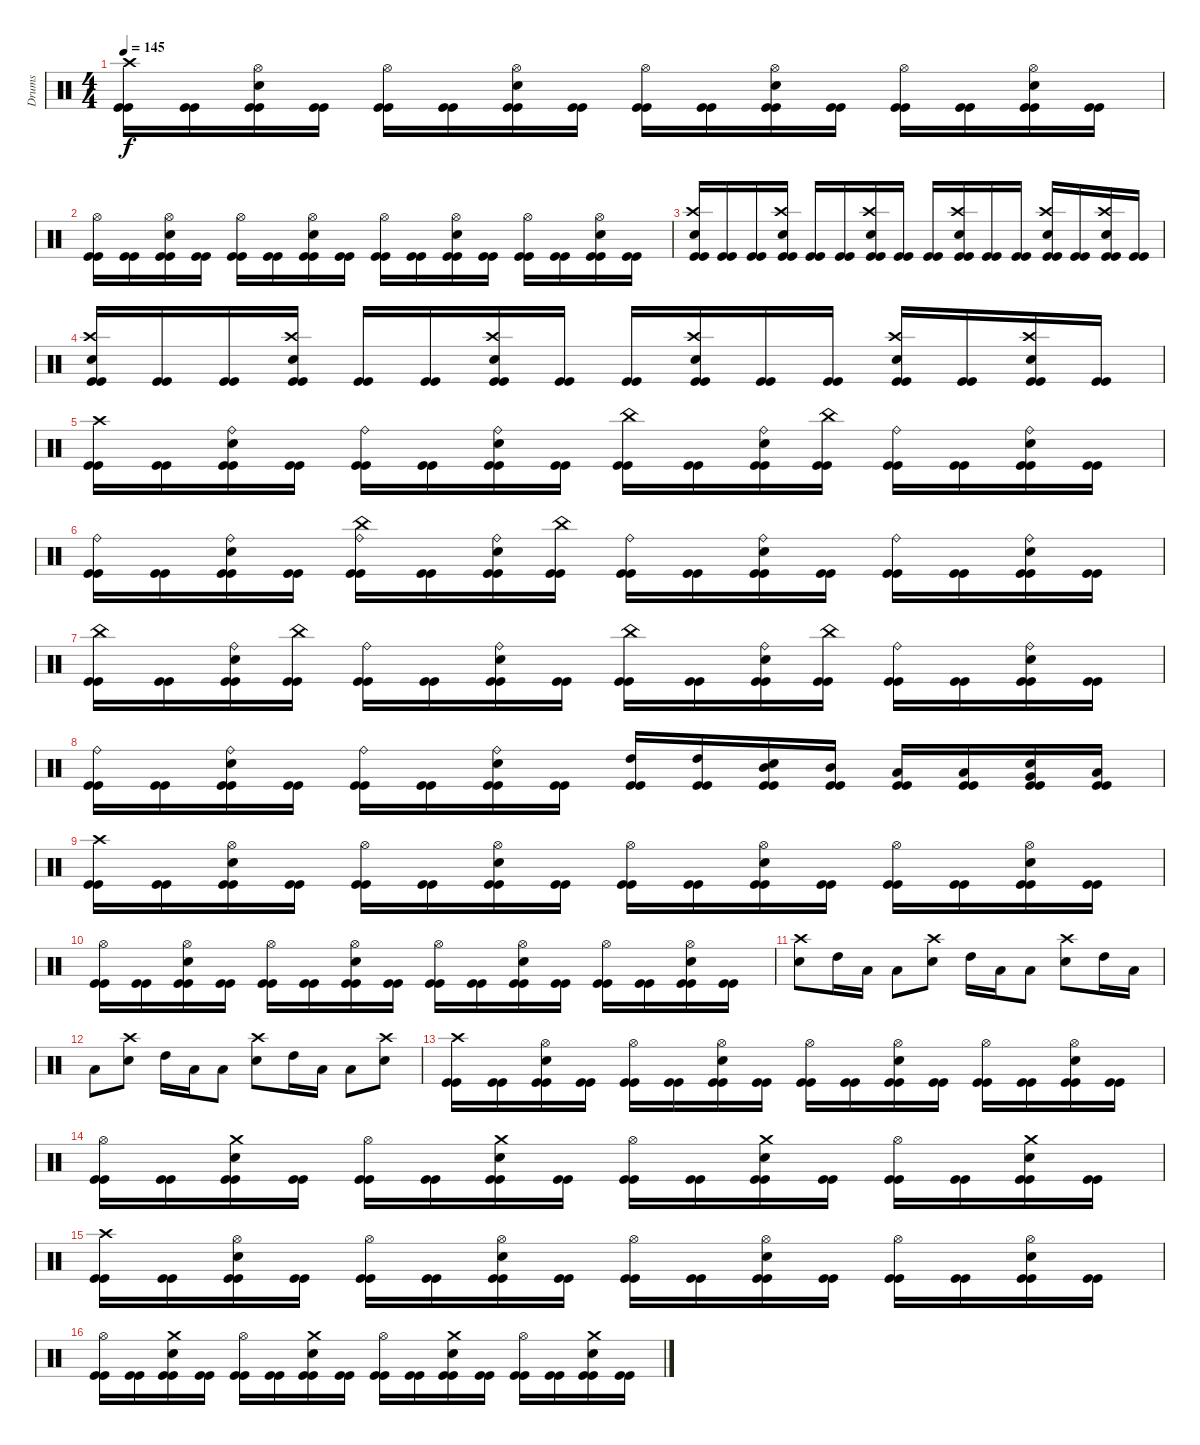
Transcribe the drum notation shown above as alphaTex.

\track ("Drums" "Drums") {instrument percussion}
\staff {score}
\articulation defaults
\ts (4 4)
\tempo 145
\clef neutral
\ks c
("Kick (hit)" "Kick (hit)" "Crash high (hit)").16{dy f} ("Kick (hit)" "Kick (hit)").16 ("Kick (hit)" "Kick (hit)" "Snare (hit) 2" "Hi-Hat (open)").16 ("Kick (hit)" "Kick (hit)").16 ("Kick (hit)" "Kick (hit)" "Hi-Hat (open)").16 ("Kick (hit)" "Kick (hit)").16 ("Kick (hit)" "Kick (hit)" "Snare (hit) 2" "Hi-Hat (open)").16 ("Kick (hit)" "Kick (hit)").16 ("Kick (hit)" "Kick (hit)" "Hi-Hat (open)").16 ("Kick (hit)" "Kick (hit)").16 ("Kick (hit)" "Kick (hit)" "Snare (hit) 2" "Hi-Hat (open)").16 ("Kick (hit)" "Kick (hit)").16 ("Kick (hit)" "Kick (hit)" "Hi-Hat (open)").16 ("Kick (hit)" "Kick (hit)").16 ("Kick (hit)" "Kick (hit)" "Snare (hit) 2" "Hi-Hat (open)").16 ("Kick (hit)" "Kick (hit)").16 |
("Kick (hit)" "Kick (hit)" "Hi-Hat (open)").16 ("Kick (hit)" "Kick (hit)").16 ("Kick (hit)" "Kick (hit)" "Snare (hit) 2" "Hi-Hat (open)").16 ("Kick (hit)" "Kick (hit)").16 ("Kick (hit)" "Kick (hit)" "Hi-Hat (open)").16 ("Kick (hit)" "Kick (hit)").16 ("Kick (hit)" "Kick (hit)" "Snare (hit) 2" "Hi-Hat (open)").16 ("Kick (hit)" "Kick (hit)").16 ("Kick (hit)" "Kick (hit)" "Hi-Hat (open)").16 ("Kick (hit)" "Kick (hit)").16 ("Kick (hit)" "Kick (hit)" "Snare (hit) 2" "Hi-Hat (open)").16 ("Kick (hit)" "Kick (hit)").16 ("Kick (hit)" "Kick (hit)" "Hi-Hat (open)").16 ("Kick (hit)" "Kick (hit)").16 ("Kick (hit)" "Kick (hit)" "Snare (hit) 2" "Hi-Hat (open)").16 ("Kick (hit)" "Kick (hit)").16 |
("Kick (hit)" "Kick (hit)" "Snare (hit) 2" "Crash high (hit)").16 ("Kick (hit)" "Kick (hit)").16 ("Kick (hit)" "Kick (hit)").16 ("Kick (hit)" "Kick (hit)" "Snare (hit) 2" "Crash high (hit)").16 ("Kick (hit)" "Kick (hit)").16 ("Kick (hit)" "Kick (hit)").16 ("Kick (hit)" "Kick (hit)" "Snare (hit) 2" "Crash high (hit)").16 ("Kick (hit)" "Kick (hit)").16 ("Kick (hit)" "Kick (hit)").16 ("Kick (hit)" "Kick (hit)" "Snare (hit) 2" "Crash high (hit)").16 ("Kick (hit)" "Kick (hit)").16 ("Kick (hit)" "Kick (hit)").16 ("Kick (hit)" "Kick (hit)" "Snare (hit) 2" "Crash high (hit)").16 ("Kick (hit)" "Kick (hit)").16 ("Kick (hit)" "Kick (hit)" "Snare (hit) 2" "Crash high (hit)").16 ("Kick (hit)" "Kick (hit)").16 |
("Kick (hit)" "Kick (hit)" "Snare (hit) 2" "Crash high (hit)").16 ("Kick (hit)" "Kick (hit)").16 ("Kick (hit)" "Kick (hit)").16 ("Kick (hit)" "Kick (hit)" "Snare (hit) 2" "Crash high (hit)").16 ("Kick (hit)" "Kick (hit)").16 ("Kick (hit)" "Kick (hit)").16 ("Kick (hit)" "Kick (hit)" "Snare (hit) 2" "Crash high (hit)").16 ("Kick (hit)" "Kick (hit)").16 ("Kick (hit)" "Kick (hit)").16 ("Kick (hit)" "Kick (hit)" "Snare (hit) 2" "Crash high (hit)").16 ("Kick (hit)" "Kick (hit)").16 ("Kick (hit)" "Kick (hit)").16 ("Kick (hit)" "Kick (hit)" "Snare (hit) 2" "Crash high (hit)").16 ("Kick (hit)" "Kick (hit)").16 ("Kick (hit)" "Kick (hit)" "Snare (hit) 2" "Crash high (hit)").16 ("Kick (hit)" "Kick (hit)").16 |
("Kick (hit)" "Kick (hit)" "Crash high (hit)").16 ("Kick (hit)" "Kick (hit)").16 ("Kick (hit)" "Kick (hit)" "Snare (hit) 2" "Ride (bell)").16 ("Kick (hit)" "Kick (hit)").16 ("Kick (hit)" "Kick (hit)" "Ride (bell)").16 ("Kick (hit)" "Kick (hit)").16 ("Kick (hit)" "Kick (hit)" "Snare (hit) 2" "Ride (bell)").16 ("Kick (hit)" "Kick (hit)").16 ("Kick (hit)" "Kick (hit)" "China (hit)").16 ("Kick (hit)" "Kick (hit)").16 ("Kick (hit)" "Kick (hit)" "Snare (hit) 2" "Ride (bell)").16 ("Kick (hit)" "Kick (hit)" "China (hit)").16 ("Kick (hit)" "Kick (hit)" "Ride (bell)").16 ("Kick (hit)" "Kick (hit)").16 ("Kick (hit)" "Kick (hit)" "Snare (hit) 2" "Ride (bell)").16 ("Kick (hit)" "Kick (hit)").16 |
("Kick (hit)" "Kick (hit)" "Ride (bell)").16 ("Kick (hit)" "Kick (hit)").16 ("Kick (hit)" "Kick (hit)" "Snare (hit) 2" "Ride (bell)").16 ("Kick (hit)" "Kick (hit)").16 ("Kick (hit)" "Kick (hit)" "China (hit)" "Ride (bell)").16 ("Kick (hit)" "Kick (hit)").16 ("Kick (hit)" "Kick (hit)" "Snare (hit) 2" "Ride (bell)").16 ("Kick (hit)" "Kick (hit)" "China (hit)").16 ("Kick (hit)" "Kick (hit)" "Ride (bell)").16 ("Kick (hit)" "Kick (hit)").16 ("Kick (hit)" "Kick (hit)" "Snare (hit) 2" "Ride (bell)").16 ("Kick (hit)" "Kick (hit)").16 ("Kick (hit)" "Kick (hit)" "Ride (bell)").16 ("Kick (hit)" "Kick (hit)").16 ("Kick (hit)" "Kick (hit)" "Snare (hit) 2" "Ride (bell)").16 ("Kick (hit)" "Kick (hit)").16 |
("Kick (hit)" "Kick (hit)" "China (hit)").16 ("Kick (hit)" "Kick (hit)").16 ("Kick (hit)" "Kick (hit)" "Snare (hit) 2" "Ride (bell)").16 ("Kick (hit)" "Kick (hit)" "China (hit)").16 ("Kick (hit)" "Kick (hit)" "Ride (bell)").16 ("Kick (hit)" "Kick (hit)").16 ("Kick (hit)" "Kick (hit)" "Snare (hit) 2" "Ride (bell)").16 ("Kick (hit)" "Kick (hit)").16 ("Kick (hit)" "Kick (hit)" "China (hit)").16 ("Kick (hit)" "Kick (hit)").16 ("Kick (hit)" "Kick (hit)" "Snare (hit) 2" "Ride (bell)").16 ("Kick (hit)" "Kick (hit)" "China (hit)").16 ("Kick (hit)" "Kick (hit)" "Ride (bell)").16 ("Kick (hit)" "Kick (hit)").16 ("Kick (hit)" "Kick (hit)" "Snare (hit) 2" "Ride (bell)").16 ("Kick (hit)" "Kick (hit)").16 |
("Kick (hit)" "Kick (hit)" "Ride (bell)").16 ("Kick (hit)" "Kick (hit)").16 ("Kick (hit)" "Kick (hit)" "Snare (hit) 2" "Ride (bell)").16 ("Kick (hit)" "Kick (hit)").16 ("Kick (hit)" "Kick (hit)" "Ride (bell)").16 ("Kick (hit)" "Kick (hit)").16 ("Kick (hit)" "Kick (hit)" "Snare (hit) 2" "Ride (bell)").16 ("Kick (hit)" "Kick (hit)").16 ("Kick (hit)" "Kick (hit)" "High Tom (hit)").16 ("Kick (hit)" "Kick (hit)" "High Tom (hit)").16 ("Kick (hit)" "Kick (hit)" "Snare (hit) 2" "Mid Tom (hit)").16 ("Kick (hit)" "Kick (hit)" "Mid Tom (hit)").16 ("Kick (hit)" "Kick (hit)" "Low Tom (hit)").16 ("Kick (hit)" "Kick (hit)" "Low Tom (hit)").16 ("Kick (hit)" "Kick (hit)" "Snare (hit) 2" "Very Low Tom (hit)").16 ("Kick (hit)" "Kick (hit)" "Low Floor Tom (hit)").16 |
("Kick (hit)" "Kick (hit)" "Crash high (hit)").16 ("Kick (hit)" "Kick (hit)").16 ("Kick (hit)" "Kick (hit)" "Snare (hit) 2" "Hi-Hat (open)").16 ("Kick (hit)" "Kick (hit)").16 ("Kick (hit)" "Kick (hit)" "Hi-Hat (open)").16 ("Kick (hit)" "Kick (hit)").16 ("Kick (hit)" "Kick (hit)" "Snare (hit) 2" "Hi-Hat (open)").16 ("Kick (hit)" "Kick (hit)").16 ("Kick (hit)" "Kick (hit)" "Hi-Hat (open)").16 ("Kick (hit)" "Kick (hit)").16 ("Kick (hit)" "Kick (hit)" "Snare (hit) 2" "Hi-Hat (open)").16 ("Kick (hit)" "Kick (hit)").16 ("Kick (hit)" "Kick (hit)" "Hi-Hat (open)").16 ("Kick (hit)" "Kick (hit)").16 ("Kick (hit)" "Kick (hit)" "Snare (hit) 2" "Hi-Hat (open)").16 ("Kick (hit)" "Kick (hit)").16 |
("Kick (hit)" "Kick (hit)" "Hi-Hat (open)").16 ("Kick (hit)" "Kick (hit)").16 ("Kick (hit)" "Kick (hit)" "Snare (hit) 2" "Hi-Hat (open)").16 ("Kick (hit)" "Kick (hit)").16 ("Kick (hit)" "Kick (hit)" "Hi-Hat (open)").16 ("Kick (hit)" "Kick (hit)").16 ("Kick (hit)" "Kick (hit)" "Snare (hit) 2" "Hi-Hat (open)").16 ("Kick (hit)" "Kick (hit)").16 ("Kick (hit)" "Kick (hit)" "Hi-Hat (open)").16 ("Kick (hit)" "Kick (hit)").16 ("Kick (hit)" "Kick (hit)" "Snare (hit) 2" "Hi-Hat (open)").16 ("Kick (hit)" "Kick (hit)").16 ("Kick (hit)" "Kick (hit)" "Hi-Hat (open)").16 ("Kick (hit)" "Kick (hit)").16 ("Kick (hit)" "Kick (hit)" "Snare (hit) 2" "Hi-Hat (open)").16 ("Kick (hit)" "Kick (hit)").16 |
("Snare (hit) 2" "Crash high (hit)").8 "High Tom (hit)".16 "Low Tom (hit)".16 "Low Floor Tom (hit)".8 ("Snare (hit) 2" "Crash high (hit)").8 "High Tom (hit)".16 "Low Tom (hit)".16 "Low Floor Tom (hit)".8 ("Snare (hit) 2" "Crash high (hit)").8 "High Tom (hit)".16 "Low Tom (hit)".16 |
"Low Floor Tom (hit)".8 ("Snare (hit) 2" "Crash high (hit)").8 "High Tom (hit)".16 "Low Tom (hit)".16 "Low Floor Tom (hit)".8 ("Snare (hit) 2" "Crash high (hit)").8 "High Tom (hit)".16 "Low Tom (hit)".16 "Low Floor Tom (hit)".8 ("Snare (hit) 2" "Crash high (hit)").8 |
("Kick (hit)" "Kick (hit)" "Crash high (hit)").16 ("Kick (hit)" "Kick (hit)").16 ("Kick (hit)" "Kick (hit)" "Snare (hit) 2" "Hi-Hat (open)").16 ("Kick (hit)" "Kick (hit)").16 ("Kick (hit)" "Kick (hit)" "Hi-Hat (open)").16 ("Kick (hit)" "Kick (hit)").16 ("Kick (hit)" "Kick (hit)" "Snare (hit) 2" "Hi-Hat (open)").16 ("Kick (hit)" "Kick (hit)").16 ("Kick (hit)" "Kick (hit)" "Hi-Hat (open)").16 ("Kick (hit)" "Kick (hit)").16 ("Kick (hit)" "Kick (hit)" "Snare (hit) 2" "Hi-Hat (open)").16 ("Kick (hit)" "Kick (hit)").16 ("Kick (hit)" "Kick (hit)" "Hi-Hat (open)").16 ("Kick (hit)" "Kick (hit)").16 ("Kick (hit)" "Kick (hit)" "Snare (hit) 2" "Hi-Hat (open)").16 ("Kick (hit)" "Kick (hit)").16 |
("Kick (hit)" "Kick (hit)" "Hi-Hat (open)").16 ("Kick (hit)" "Kick (hit)").16 ("Kick (hit)" "Kick (hit)" "Snare (hit) 2" "Crash medium (hit)").16 ("Kick (hit)" "Kick (hit)").16 ("Kick (hit)" "Kick (hit)" "Hi-Hat (open)").16 ("Kick (hit)" "Kick (hit)").16 ("Kick (hit)" "Kick (hit)" "Snare (hit) 2" "Crash medium (hit)").16 ("Kick (hit)" "Kick (hit)").16 ("Kick (hit)" "Kick (hit)" "Hi-Hat (open)").16 ("Kick (hit)" "Kick (hit)").16 ("Kick (hit)" "Kick (hit)" "Snare (hit) 2" "Crash medium (hit)").16 ("Kick (hit)" "Kick (hit)").16 ("Kick (hit)" "Kick (hit)" "Hi-Hat (open)").16 ("Kick (hit)" "Kick (hit)").16 ("Kick (hit)" "Kick (hit)" "Snare (hit) 2" "Crash medium (hit)").16 ("Kick (hit)" "Kick (hit)").16 |
("Kick (hit)" "Kick (hit)" "Crash high (hit)").16 ("Kick (hit)" "Kick (hit)").16 ("Kick (hit)" "Kick (hit)" "Snare (hit) 2" "Hi-Hat (open)").16 ("Kick (hit)" "Kick (hit)").16 ("Kick (hit)" "Kick (hit)" "Hi-Hat (open)").16 ("Kick (hit)" "Kick (hit)").16 ("Kick (hit)" "Kick (hit)" "Snare (hit) 2" "Hi-Hat (open)").16 ("Kick (hit)" "Kick (hit)").16 ("Kick (hit)" "Kick (hit)" "Hi-Hat (open)").16 ("Kick (hit)" "Kick (hit)").16 ("Kick (hit)" "Kick (hit)" "Snare (hit) 2" "Hi-Hat (open)").16 ("Kick (hit)" "Kick (hit)").16 ("Kick (hit)" "Kick (hit)" "Hi-Hat (open)").16 ("Kick (hit)" "Kick (hit)").16 ("Kick (hit)" "Kick (hit)" "Snare (hit) 2" "Hi-Hat (open)").16 ("Kick (hit)" "Kick (hit)").16 |
("Kick (hit)" "Kick (hit)" "Hi-Hat (open)").16 ("Kick (hit)" "Kick (hit)").16 ("Kick (hit)" "Kick (hit)" "Snare (hit) 2" "Crash medium (hit)").16 ("Kick (hit)" "Kick (hit)").16 ("Kick (hit)" "Kick (hit)" "Hi-Hat (open)").16 ("Kick (hit)" "Kick (hit)").16 ("Kick (hit)" "Kick (hit)" "Snare (hit) 2" "Crash medium (hit)").16 ("Kick (hit)" "Kick (hit)").16 ("Kick (hit)" "Kick (hit)" "Hi-Hat (open)").16 ("Kick (hit)" "Kick (hit)").16 ("Kick (hit)" "Kick (hit)" "Snare (hit) 2" "Crash medium (hit)").16 ("Kick (hit)" "Kick (hit)").16 ("Kick (hit)" "Kick (hit)" "Hi-Hat (open)").16 ("Kick (hit)" "Kick (hit)").16 ("Kick (hit)" "Kick (hit)" "Snare (hit) 2" "Crash medium (hit)").16 ("Kick (hit)" "Kick (hit)").16
